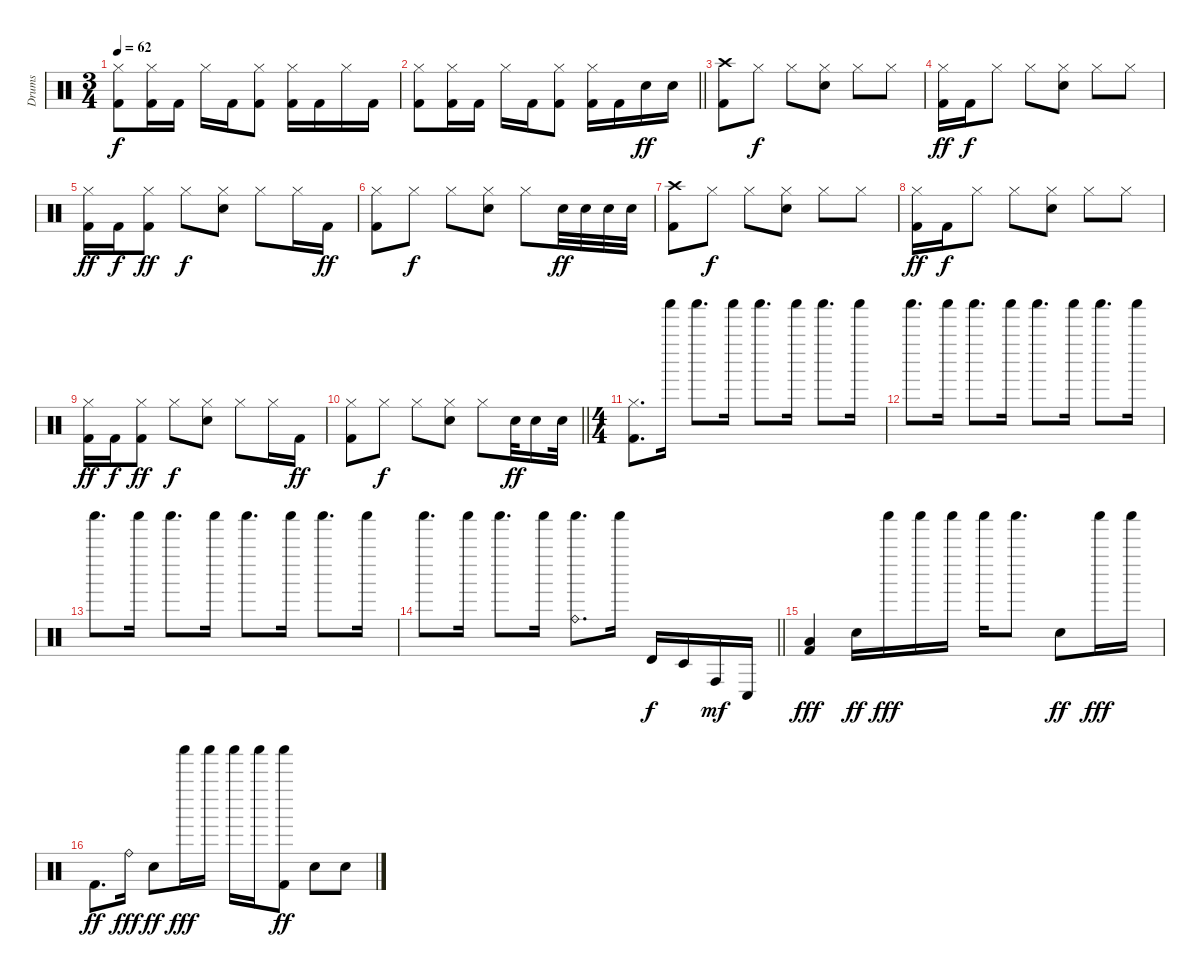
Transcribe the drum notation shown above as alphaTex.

\track ("Drums" "Drums") {instrument percussion}
\staff {score}
\articulation defaults
\ts (3 4)
\tempo 62
\clef neutral
\ks c
("Hi-Hat (closed)" "Kick (hit) 2").8{dy f} ("Hi-Hat (closed)" "Kick (hit) 2").16 "Kick (hit) 2".16 "Hi-Hat (closed)".16 "Kick (hit) 2".16 ("Hi-Hat (closed)" "Kick (hit) 2").8 ("Hi-Hat (closed)" "Kick (hit) 2").16 "Kick (hit) 2".16 "Hi-Hat (closed)".16 "Kick (hit) 2".16 |
\barLineRight lightlight
("Hi-Hat (closed)" "Kick (hit) 2").8 ("Hi-Hat (closed)" "Kick (hit) 2").16 "Kick (hit) 2".16 "Hi-Hat (closed)".16 "Kick (hit) 2".16 ("Hi-Hat (closed)" "Kick (hit) 2").8 ("Hi-Hat (closed)" "Kick (hit) 2").16 "Kick (hit) 2".16 "Electric Snare (hit)".16{dy ff} "Electric Snare (hit)".16 |
("Crash high (hit)" "Kick (hit) 2").8 "Hi-Hat (closed)".8{dy f} "Hi-Hat (closed)".8 ("Hi-Hat (closed)" "Electric Snare (hit)").8 "Hi-Hat (closed)".8 "Hi-Hat (closed)".8 |
("Hi-Hat (closed)" "Kick (hit) 2").16{dy ff} "Kick (hit) 2".16{dy f} "Hi-Hat (closed)".8 "Hi-Hat (closed)".8 ("Hi-Hat (closed)" "Electric Snare (hit)").8 "Hi-Hat (closed)".8 "Hi-Hat (closed)".8 |
("Hi-Hat (closed)" "Kick (hit) 2").16{dy ff} "Kick (hit) 2".16{dy f} ("Hi-Hat (closed)" "Kick (hit) 2").8{dy ff} "Hi-Hat (closed)".8{dy f} ("Hi-Hat (closed)" "Electric Snare (hit)").8 "Hi-Hat (closed)".8 "Hi-Hat (closed)".16 "Kick (hit) 2".16{dy ff} |
("Hi-Hat (closed)" "Kick (hit) 2").8 "Hi-Hat (closed)".8{dy f} "Hi-Hat (closed)".8 ("Hi-Hat (closed)" "Electric Snare (hit)").8 "Hi-Hat (closed)".8 "Snare (hit) 2".32{dy ff} "Electric Snare (hit)".32 "Electric Snare (hit)".32 "Electric Snare (hit)".32 |
("Crash high (hit)" "Kick (hit) 2").8 "Hi-Hat (closed)".8{dy f} "Hi-Hat (closed)".8 ("Hi-Hat (closed)" "Electric Snare (hit)").8 "Hi-Hat (closed)".8 "Hi-Hat (closed)".8 |
("Hi-Hat (closed)" "Kick (hit) 2").16{dy ff} "Kick (hit) 2".16{dy f} "Hi-Hat (closed)".8 "Hi-Hat (closed)".8 ("Hi-Hat (closed)" "Electric Snare (hit)").8 "Hi-Hat (closed)".8 "Hi-Hat (closed)".8 |
("Hi-Hat (closed)" "Kick (hit) 2").16{dy ff} "Kick (hit) 2".16{dy f} ("Hi-Hat (closed)" "Kick (hit) 2").8{dy ff} "Hi-Hat (closed)".8{dy f} ("Hi-Hat (closed)" "Electric Snare (hit)").8 "Hi-Hat (closed)".8 "Hi-Hat (closed)".16 "Kick (hit) 2".16{dy ff} |
\barLineRight lightlight
("Hi-Hat (closed)" "Kick (hit) 2").8 "Hi-Hat (closed)".8{dy f} "Hi-Hat (closed)".8 ("Hi-Hat (closed)" "Electric Snare (hit)").8 "Hi-Hat (closed)".8 "Electric Snare (hit)".32{dy ff} "Electric Snare (hit)".16 "Electric Snare (hit)".32 |
\ts (4 4)
("Hi-Hat (closed)" "Kick (hit) 2").8{d} "Shaker (hit)".16 "Shaker (hit)".8{d} "Shaker (hit)".16 "Shaker (hit)".8{d} "Shaker (hit)".16 "Shaker (hit)".8{d} "Shaker (hit)".16 |
"Shaker (hit)".8{d} "Shaker (hit)".16 "Shaker (hit)".8{d} "Shaker (hit)".16 "Shaker (hit)".8{d} "Shaker (hit)".16 "Shaker (hit)".8{d} "Shaker (hit)".16 |
"Shaker (hit)".8{d} "Shaker (hit)".16 "Shaker (hit)".8{d} "Shaker (hit)".16 "Shaker (hit)".8{d} "Shaker (hit)".16 "Shaker (hit)".8{d} "Shaker (hit)".16 |
\barLineRight lightlight "Shaker (hit)".8{d} "Shaker (hit)".16 "Shaker (hit)".8{d} "Shaker (hit)".16
("Ride (bell)" "Shaker (hit)").8{d} "Shaker (hit)".16 "Timbale high (hit)".16{dy f} "Timbale low (hit)".16 "Conga high (hit)".16{dy mf} "Conga low (hit)".16 |
("Low Floor Tom (hit)" "Kick (hit) 2").4{dy fff} "Electric Snare (hit)".16{dy ff} "Shaker (hit)".16{dy fff} "Shaker (hit)".16 "Shaker (hit)".16 "Shaker (hit)".16 "Shaker (hit)".8{d} "Electric Snare (hit)".8{dy ff} "Shaker (hit)".16{dy fff} "Shaker (hit)".16 |
"Kick (hit) 2".8{d dy ff} "Ride (bell)".16{dy fff} "Electric Snare (hit)".8{dy ff} "Shaker (hit)".16{dy fff} "Shaker (hit)".16 "Shaker (hit)".16 "Shaker (hit)".16 ("Shaker (hit)" "Kick (hit) 2").8{dy ff} "Electric Snare (hit)".8 "Electric Snare (hit)".8
